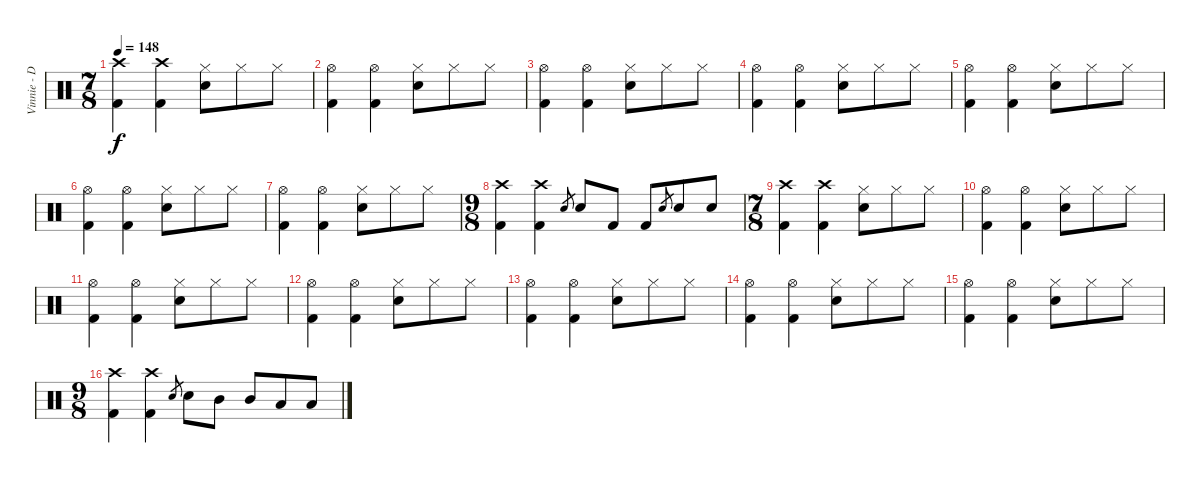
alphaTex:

\track ("Vinnie - Drums" "Vinnie - D") {instrument percussion}
\staff {score}
\articulation defaults
\ts (7 8)
\tempo 148
\clef neutral
\ks c
("Crash high (hit)" "Kick (hit) 2").4{dy f} ("Crash high (hit)" "Kick (hit) 2").4 ("Hi-Hat (closed)" "Electric Snare (hit)").8 "Hi-Hat (closed)".8 "Hi-Hat (closed)".8 |
("Hi-Hat (open)" "Kick (hit) 2").4 ("Hi-Hat (open)" "Kick (hit) 2").4 ("Hi-Hat (closed)" "Electric Snare (hit)").8 "Hi-Hat (closed)".8 "Hi-Hat (closed)".8 |
("Hi-Hat (open)" "Kick (hit) 2").4 ("Hi-Hat (open)" "Kick (hit) 2").4 ("Hi-Hat (closed)" "Electric Snare (hit)").8 "Hi-Hat (closed)".8 "Hi-Hat (closed)".8 |
("Hi-Hat (open)" "Kick (hit) 2").4 ("Hi-Hat (open)" "Kick (hit) 2").4 ("Hi-Hat (closed)" "Electric Snare (hit)").8 "Hi-Hat (closed)".8 "Hi-Hat (closed)".8 |
("Hi-Hat (open)" "Kick (hit) 2").4 ("Hi-Hat (open)" "Kick (hit) 2").4 ("Hi-Hat (closed)" "Electric Snare (hit)").8 "Hi-Hat (closed)".8 "Hi-Hat (closed)".8 |
("Hi-Hat (open)" "Kick (hit) 2").4 ("Hi-Hat (open)" "Kick (hit) 2").4 ("Hi-Hat (closed)" "Electric Snare (hit)").8 "Hi-Hat (closed)".8 "Hi-Hat (closed)".8 |
("Hi-Hat (open)" "Kick (hit) 2").4 ("Hi-Hat (open)" "Kick (hit) 2").4 ("Hi-Hat (closed)" "Electric Snare (hit)").8 "Hi-Hat (closed)".8 "Hi-Hat (closed)".8 |
\ts (9 8)
("Crash high (hit)" "Kick (hit) 2").4 ("Crash high (hit)" "Kick (hit) 2").4 "Electric Snare (hit)".8{gr} "Electric Snare (hit)".8 "Kick (hit) 2".8 "Kick (hit) 2".8 "Electric Snare (hit)".8{gr} "Electric Snare (hit)".8 "Electric Snare (hit)".8 |
\ts (7 8)
("Crash high (hit)" "Kick (hit) 2").4 ("Crash high (hit)" "Kick (hit) 2").4 ("Hi-Hat (closed)" "Electric Snare (hit)").8 "Hi-Hat (closed)".8 "Hi-Hat (closed)".8 |
("Hi-Hat (open)" "Kick (hit) 2").4 ("Hi-Hat (open)" "Kick (hit) 2").4 ("Hi-Hat (closed)" "Electric Snare (hit)").8 "Hi-Hat (closed)".8 "Hi-Hat (closed)".8 |
("Hi-Hat (open)" "Kick (hit) 2").4 ("Hi-Hat (open)" "Kick (hit) 2").4 ("Hi-Hat (closed)" "Electric Snare (hit)").8 "Hi-Hat (closed)".8 "Hi-Hat (closed)".8 |
("Hi-Hat (open)" "Kick (hit) 2").4 ("Hi-Hat (open)" "Kick (hit) 2").4 ("Hi-Hat (closed)" "Electric Snare (hit)").8 "Hi-Hat (closed)".8 "Hi-Hat (closed)".8 |
("Hi-Hat (open)" "Kick (hit) 2").4 ("Hi-Hat (open)" "Kick (hit) 2").4 ("Hi-Hat (closed)" "Electric Snare (hit)").8 "Hi-Hat (closed)".8 "Hi-Hat (closed)".8 |
("Hi-Hat (open)" "Kick (hit) 2").4 ("Hi-Hat (open)" "Kick (hit) 2").4 ("Hi-Hat (closed)" "Electric Snare (hit)").8 "Hi-Hat (closed)".8 "Hi-Hat (closed)".8 |
("Hi-Hat (open)" "Kick (hit) 2").4 ("Hi-Hat (open)" "Kick (hit) 2").4 ("Hi-Hat (closed)" "Electric Snare (hit)").8 "Hi-Hat (closed)".8 "Hi-Hat (closed)".8 |
\ts (9 8)
("Crash high (hit)" "Kick (hit) 2").4 ("Crash high (hit)" "Kick (hit) 2").4 "Electric Snare (hit)".8{gr} "Electric Snare (hit)".8 "Mid Tom (hit)".8 "Mid Tom (hit)".8 "Low Tom (hit)".8 "Low Tom (hit)".8
